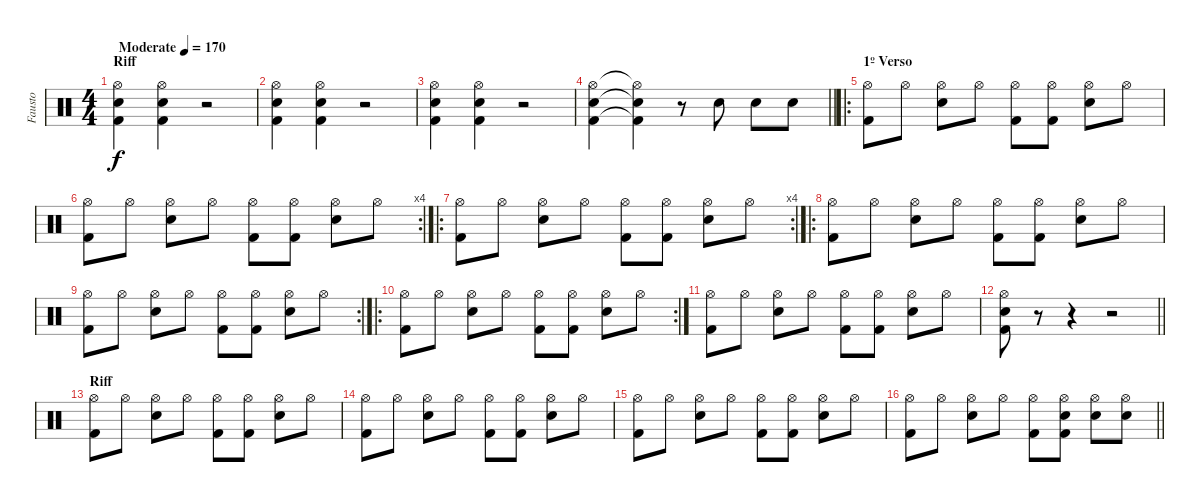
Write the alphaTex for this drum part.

\track ("Fausto" "Fausto") {instrument percussion}
\staff {score}
\articulation defaults
\ts (4 4)
\section ("" "Riff")
\tempo (170 "Moderate")
\clef neutral
\ks c
("Hi-Hat (open)" "Snare (hit) 2" "Kick (hit) 2").4{dy f} ("Hi-Hat (open)" "Snare (hit) 2" "Kick (hit) 2").4 r.2 |
("Hi-Hat (open)" "Snare (hit) 2" "Kick (hit) 2").4 ("Hi-Hat (open)" "Snare (hit) 2" "Kick (hit) 2").4 r.2 |
("Hi-Hat (open)" "Snare (hit) 2" "Kick (hit) 2").4 ("Hi-Hat (open)" "Snare (hit) 2" "Kick (hit) 2").4 r.2 |
\barLineRight lightlight
("Hi-Hat (open)" "Snare (hit) 2" "Kick (hit) 2").4 ("Hi-Hat (open)"{t} "Snare (hit) 2"{t} "Kick (hit) 2"{t}).4 r.8 "Snare (hit) 2".8 "Snare (hit) 2".8 "Snare (hit) 2".8 |
\ro
\section ("" "1º Verso")
("Hi-Hat (open)" "Kick (hit) 2").8 "Hi-Hat (open)".8 ("Hi-Hat (open)" "Snare (hit) 2").8 "Hi-Hat (open)".8 ("Hi-Hat (open)" "Kick (hit) 2").8 ("Hi-Hat (open)" "Kick (hit) 2").8 ("Hi-Hat (open)" "Snare (hit) 2").8 "Hi-Hat (open)".8 |
\rc 4
("Hi-Hat (open)" "Kick (hit) 2").8 "Hi-Hat (open)".8 ("Hi-Hat (open)" "Snare (hit) 2").8 "Hi-Hat (open)".8 ("Hi-Hat (open)" "Kick (hit) 2").8 ("Hi-Hat (open)" "Kick (hit) 2").8 ("Hi-Hat (open)" "Snare (hit) 2").8 "Hi-Hat (open)".8 |
\ro
\rc 4
("Hi-Hat (open)" "Kick (hit) 2").8 "Hi-Hat (open)".8 ("Hi-Hat (open)" "Snare (hit) 2").8 "Hi-Hat (open)".8 ("Hi-Hat (open)" "Kick (hit) 2").8 ("Hi-Hat (open)" "Kick (hit) 2").8 ("Hi-Hat (open)" "Snare (hit) 2").8 "Hi-Hat (open)".8 |
\ro
("Hi-Hat (open)" "Kick (hit) 2").8 "Hi-Hat (open)".8 ("Hi-Hat (open)" "Snare (hit) 2").8 "Hi-Hat (open)".8 ("Hi-Hat (open)" "Kick (hit) 2").8 ("Hi-Hat (open)" "Kick (hit) 2").8 ("Hi-Hat (open)" "Snare (hit) 2").8 "Hi-Hat (open)".8 |
\rc 2
("Hi-Hat (open)" "Kick (hit) 2").8 "Hi-Hat (open)".8 ("Hi-Hat (open)" "Snare (hit) 2").8 "Hi-Hat (open)".8 ("Hi-Hat (open)" "Kick (hit) 2").8 ("Hi-Hat (open)" "Kick (hit) 2").8 ("Hi-Hat (open)" "Snare (hit) 2").8 "Hi-Hat (open)".8 |
\ro
\rc 2
("Hi-Hat (open)" "Kick (hit) 2").8 "Hi-Hat (open)".8 ("Hi-Hat (open)" "Snare (hit) 2").8 "Hi-Hat (open)".8 ("Hi-Hat (open)" "Kick (hit) 2").8 ("Hi-Hat (open)" "Kick (hit) 2").8 ("Hi-Hat (open)" "Snare (hit) 2").8 "Hi-Hat (open)".8 |
("Hi-Hat (open)" "Kick (hit) 2").8 "Hi-Hat (open)".8 ("Hi-Hat (open)" "Snare (hit) 2").8 "Hi-Hat (open)".8 ("Hi-Hat (open)" "Kick (hit) 2").8 ("Hi-Hat (open)" "Kick (hit) 2").8 ("Hi-Hat (open)" "Snare (hit) 2").8 "Hi-Hat (open)".8 |
\barLineRight lightlight
("Hi-Hat (open)" "Snare (hit) 2" "Kick (hit) 2").8 r.8 r.4 r.2 |
\section ("" "Riff")
("Hi-Hat (open)" "Kick (hit) 2").8 "Hi-Hat (open)".8 ("Hi-Hat (open)" "Snare (hit) 2").8 "Hi-Hat (open)".8 ("Hi-Hat (open)" "Kick (hit) 2").8 ("Hi-Hat (open)" "Kick (hit) 2").8 ("Hi-Hat (open)" "Snare (hit) 2").8 "Hi-Hat (open)".8 |
("Hi-Hat (open)" "Kick (hit) 2").8 "Hi-Hat (open)".8 ("Hi-Hat (open)" "Snare (hit) 2").8 "Hi-Hat (open)".8 ("Hi-Hat (open)" "Kick (hit) 2").8 ("Hi-Hat (open)" "Kick (hit) 2").8 ("Hi-Hat (open)" "Snare (hit) 2").8 "Hi-Hat (open)".8 |
("Hi-Hat (open)" "Kick (hit) 2").8 "Hi-Hat (open)".8 ("Hi-Hat (open)" "Snare (hit) 2").8 "Hi-Hat (open)".8 ("Hi-Hat (open)" "Kick (hit) 2").8 ("Hi-Hat (open)" "Kick (hit) 2").8 ("Hi-Hat (open)" "Snare (hit) 2").8 "Hi-Hat (open)".8 |
\barLineRight lightlight
("Hi-Hat (open)" "Kick (hit) 2").8 "Hi-Hat (open)".8 ("Hi-Hat (open)" "Snare (hit) 2").8 "Hi-Hat (open)".8 ("Hi-Hat (open)" "Kick (hit) 2").8 ("Hi-Hat (open)" "Snare (hit) 2" "Kick (hit) 2").8 ("Hi-Hat (open)" "Snare (hit) 2").8 ("Hi-Hat (open)" "Snare (hit) 2").8
